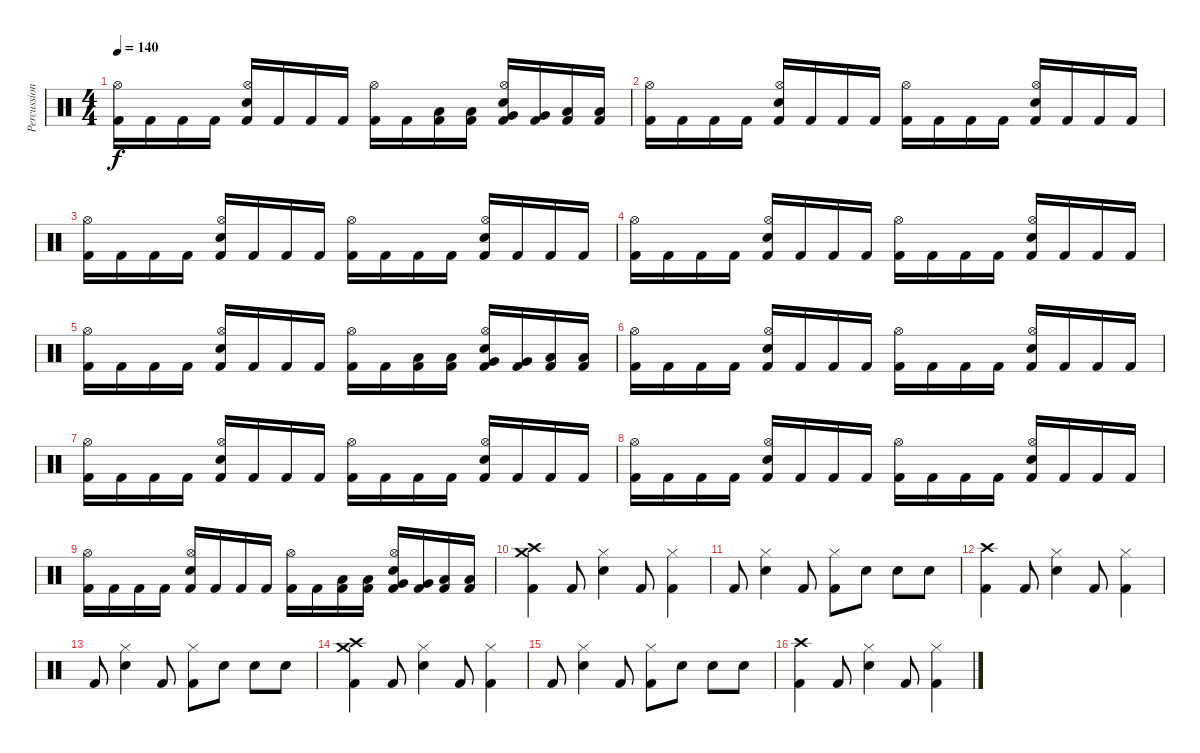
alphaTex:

\track ("Percussion" "Percussion") {instrument percussion}
\staff {score}
\articulation defaults
\ts (4 4)
\tempo 140
\clef neutral
\ks c
("Kick (hit) 2" "Hi-Hat (open)").16{dy f} "Kick (hit) 2".16 "Kick (hit) 2".16 "Kick (hit) 2".16 ("Kick (hit) 2" "Electric Snare (hit)" "Hi-Hat (open)").16 "Kick (hit) 2".16 "Kick (hit) 2".16 "Kick (hit) 2".16 ("Kick (hit) 2" "Hi-Hat (open)").16 "Kick (hit) 2".16 ("Low Tom (hit)" "Kick (hit) 2").16 ("Low Tom (hit)" "Kick (hit) 2").16 ("Very Low Tom (hit)" "Kick (hit) 2" "Electric Snare (hit)" "Hi-Hat (open)").16 ("Very Low Tom (hit)" "Kick (hit) 2").16 ("Low Floor Tom (hit)" "Kick (hit) 2").16 ("Low Floor Tom (hit)" "Kick (hit) 2").16 |
("Kick (hit) 2" "Hi-Hat (open)").16 "Kick (hit) 2".16 "Kick (hit) 2".16 "Kick (hit) 2".16 ("Kick (hit) 2" "Electric Snare (hit)" "Hi-Hat (open)").16 "Kick (hit) 2".16 "Kick (hit) 2".16 "Kick (hit) 2".16 ("Kick (hit) 2" "Hi-Hat (open)").16 "Kick (hit) 2".16 "Kick (hit) 2".16 "Kick (hit) 2".16 ("Kick (hit) 2" "Electric Snare (hit)" "Hi-Hat (open)").16 "Kick (hit) 2".16 "Kick (hit) 2".16 "Kick (hit) 2".16 |
("Kick (hit) 2" "Hi-Hat (open)").16 "Kick (hit) 2".16 "Kick (hit) 2".16 "Kick (hit) 2".16 ("Kick (hit) 2" "Electric Snare (hit)" "Hi-Hat (open)").16 "Kick (hit) 2".16 "Kick (hit) 2".16 "Kick (hit) 2".16 ("Kick (hit) 2" "Hi-Hat (open)").16 "Kick (hit) 2".16 "Kick (hit) 2".16 "Kick (hit) 2".16 ("Kick (hit) 2" "Electric Snare (hit)" "Hi-Hat (open)").16 "Kick (hit) 2".16 "Kick (hit) 2".16 "Kick (hit) 2".16 |
("Kick (hit) 2" "Hi-Hat (open)").16 "Kick (hit) 2".16 "Kick (hit) 2".16 "Kick (hit) 2".16 ("Kick (hit) 2" "Electric Snare (hit)" "Hi-Hat (open)").16 "Kick (hit) 2".16 "Kick (hit) 2".16 "Kick (hit) 2".16 ("Kick (hit) 2" "Hi-Hat (open)").16 "Kick (hit) 2".16 "Kick (hit) 2".16 "Kick (hit) 2".16 ("Kick (hit) 2" "Electric Snare (hit)" "Hi-Hat (open)").16 "Kick (hit) 2".16 "Kick (hit) 2".16 "Kick (hit) 2".16 |
("Kick (hit) 2" "Hi-Hat (open)").16 "Kick (hit) 2".16 "Kick (hit) 2".16 "Kick (hit) 2".16 ("Kick (hit) 2" "Electric Snare (hit)" "Hi-Hat (open)").16 "Kick (hit) 2".16 "Kick (hit) 2".16 "Kick (hit) 2".16 ("Kick (hit) 2" "Hi-Hat (open)").16 "Kick (hit) 2".16 ("Low Tom (hit)" "Kick (hit) 2").16 ("Low Tom (hit)" "Kick (hit) 2").16 ("Very Low Tom (hit)" "Kick (hit) 2" "Electric Snare (hit)" "Hi-Hat (open)").16 ("Very Low Tom (hit)" "Kick (hit) 2").16 ("Low Floor Tom (hit)" "Kick (hit) 2").16 ("Low Floor Tom (hit)" "Kick (hit) 2").16 |
("Kick (hit) 2" "Hi-Hat (open)").16 "Kick (hit) 2".16 "Kick (hit) 2".16 "Kick (hit) 2".16 ("Kick (hit) 2" "Electric Snare (hit)" "Hi-Hat (open)").16 "Kick (hit) 2".16 "Kick (hit) 2".16 "Kick (hit) 2".16 ("Kick (hit) 2" "Hi-Hat (open)").16 "Kick (hit) 2".16 "Kick (hit) 2".16 "Kick (hit) 2".16 ("Kick (hit) 2" "Electric Snare (hit)" "Hi-Hat (open)").16 "Kick (hit) 2".16 "Kick (hit) 2".16 "Kick (hit) 2".16 |
("Kick (hit) 2" "Hi-Hat (open)").16 "Kick (hit) 2".16 "Kick (hit) 2".16 "Kick (hit) 2".16 ("Kick (hit) 2" "Electric Snare (hit)" "Hi-Hat (open)").16 "Kick (hit) 2".16 "Kick (hit) 2".16 "Kick (hit) 2".16 ("Kick (hit) 2" "Hi-Hat (open)").16 "Kick (hit) 2".16 "Kick (hit) 2".16 "Kick (hit) 2".16 ("Kick (hit) 2" "Electric Snare (hit)" "Hi-Hat (open)").16 "Kick (hit) 2".16 "Kick (hit) 2".16 "Kick (hit) 2".16 |
("Kick (hit) 2" "Hi-Hat (open)").16 "Kick (hit) 2".16 "Kick (hit) 2".16 "Kick (hit) 2".16 ("Kick (hit) 2" "Electric Snare (hit)" "Hi-Hat (open)").16 "Kick (hit) 2".16 "Kick (hit) 2".16 "Kick (hit) 2".16 ("Kick (hit) 2" "Hi-Hat (open)").16 "Kick (hit) 2".16 "Kick (hit) 2".16 "Kick (hit) 2".16 ("Kick (hit) 2" "Electric Snare (hit)" "Hi-Hat (open)").16 "Kick (hit) 2".16 "Kick (hit) 2".16 "Kick (hit) 2".16 |
("Kick (hit) 2" "Hi-Hat (open)").16 "Kick (hit) 2".16 "Kick (hit) 2".16 "Kick (hit) 2".16 ("Kick (hit) 2" "Electric Snare (hit)" "Hi-Hat (open)").16 "Kick (hit) 2".16 "Kick (hit) 2".16 "Kick (hit) 2".16 ("Kick (hit) 2" "Hi-Hat (open)").16 "Kick (hit) 2".16 ("Low Tom (hit)" "Kick (hit) 2").16 ("Low Tom (hit)" "Kick (hit) 2").16 ("Very Low Tom (hit)" "Kick (hit) 2" "Electric Snare (hit)" "Hi-Hat (open)").16 ("Very Low Tom (hit)" "Kick (hit) 2").16 ("Low Floor Tom (hit)" "Kick (hit) 2").16 ("Low Floor Tom (hit)" "Kick (hit) 2").16 |
("Crash medium (hit)" "Crash high (hit)" "Kick (hit) 2").4 "Kick (hit) 2".8 ("Electric Snare (hit)" "Hi-Hat (closed)").4 "Kick (hit) 2".8 ("Kick (hit) 2" "Hi-Hat (closed)").4 |
"Kick (hit) 2".8 ("Electric Snare (hit)" "Hi-Hat (closed)").4 "Kick (hit) 2".8 ("Kick (hit) 2" "Hi-Hat (closed)").8 "Electric Snare (hit)".8 "Electric Snare (hit)".8 "Electric Snare (hit)".8 |
("Crash high (hit)" "Kick (hit) 2").4 "Kick (hit) 2".8 ("Electric Snare (hit)" "Hi-Hat (closed)").4 "Kick (hit) 2".8 ("Kick (hit) 2" "Hi-Hat (closed)").4 |
"Kick (hit) 2".8 ("Electric Snare (hit)" "Hi-Hat (closed)").4 "Kick (hit) 2".8 ("Kick (hit) 2" "Hi-Hat (closed)").8 "Electric Snare (hit)".8 "Electric Snare (hit)".8 "Electric Snare (hit)".8 |
("Crash medium (hit)" "Crash high (hit)" "Kick (hit) 2").4 "Kick (hit) 2".8 ("Electric Snare (hit)" "Hi-Hat (closed)").4 "Kick (hit) 2".8 ("Kick (hit) 2" "Hi-Hat (closed)").4 |
"Kick (hit) 2".8 ("Electric Snare (hit)" "Hi-Hat (closed)").4 "Kick (hit) 2".8 ("Kick (hit) 2" "Hi-Hat (closed)").8 "Electric Snare (hit)".8 "Electric Snare (hit)".8 "Electric Snare (hit)".8 |
("Crash high (hit)" "Kick (hit) 2").4 "Kick (hit) 2".8 ("Electric Snare (hit)" "Hi-Hat (closed)").4 "Kick (hit) 2".8 ("Kick (hit) 2" "Hi-Hat (closed)").4
